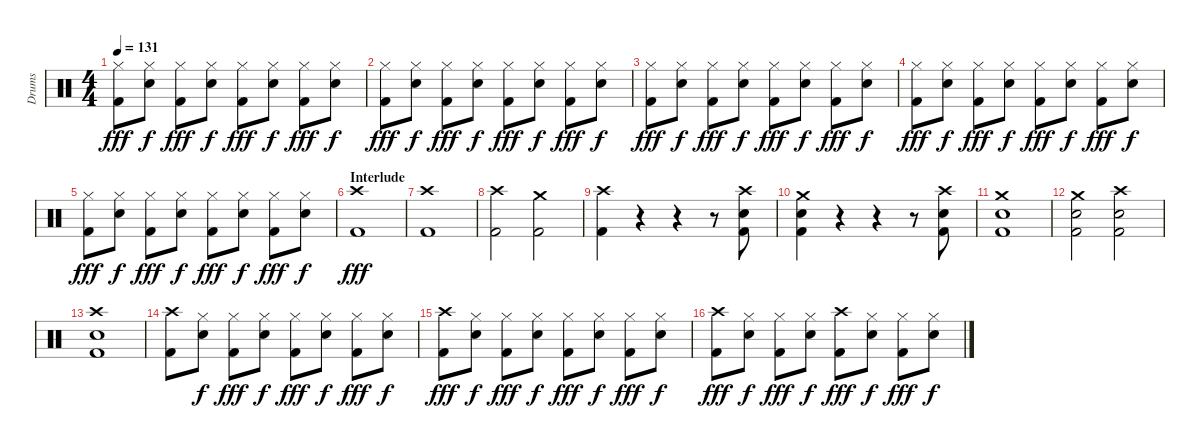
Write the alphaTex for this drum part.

\track ("Drums" "Drums") {instrument percussion}
\staff {score}
\articulation defaults
\ts (4 4)
\tempo 131
\clef neutral
\ks c
("Hi-Hat (closed)" "Kick (hit) 2").8{dy fff} ("Hi-Hat (closed)" "Electric Snare (hit)").8{dy f} ("Hi-Hat (closed)" "Kick (hit) 2").8{dy fff} ("Hi-Hat (closed)" "Electric Snare (hit)").8{dy f} ("Hi-Hat (closed)" "Kick (hit) 2").8{dy fff} ("Hi-Hat (closed)" "Electric Snare (hit)").8{dy f} ("Hi-Hat (closed)" "Kick (hit) 2").8{dy fff} ("Hi-Hat (closed)" "Electric Snare (hit)").8{dy f} |
("Hi-Hat (closed)" "Kick (hit) 2").8{dy fff} ("Hi-Hat (closed)" "Electric Snare (hit)").8{dy f} ("Hi-Hat (closed)" "Kick (hit) 2").8{dy fff} ("Hi-Hat (closed)" "Electric Snare (hit)").8{dy f} ("Hi-Hat (closed)" "Kick (hit) 2").8{dy fff} ("Hi-Hat (closed)" "Electric Snare (hit)").8{dy f} ("Hi-Hat (closed)" "Kick (hit) 2").8{dy fff} ("Hi-Hat (closed)" "Electric Snare (hit)").8{dy f} |
("Hi-Hat (closed)" "Kick (hit) 2").8{dy fff} ("Hi-Hat (closed)" "Electric Snare (hit)").8{dy f} ("Hi-Hat (closed)" "Kick (hit) 2").8{dy fff} ("Hi-Hat (closed)" "Electric Snare (hit)").8{dy f} ("Hi-Hat (closed)" "Kick (hit) 2").8{dy fff} ("Hi-Hat (closed)" "Electric Snare (hit)").8{dy f} ("Hi-Hat (closed)" "Kick (hit) 2").8{dy fff} ("Hi-Hat (closed)" "Electric Snare (hit)").8{dy f} |
("Hi-Hat (closed)" "Kick (hit) 2").8{dy fff} ("Hi-Hat (closed)" "Electric Snare (hit)").8{dy f} ("Hi-Hat (closed)" "Kick (hit) 2").8{dy fff} ("Hi-Hat (closed)" "Electric Snare (hit)").8{dy f} ("Hi-Hat (closed)" "Kick (hit) 2").8{dy fff} ("Hi-Hat (closed)" "Electric Snare (hit)").8{dy f} ("Hi-Hat (closed)" "Kick (hit) 2").8{dy fff} ("Hi-Hat (closed)" "Electric Snare (hit)").8{dy f} |
("Hi-Hat (closed)" "Kick (hit) 2").8{dy fff} ("Hi-Hat (closed)" "Electric Snare (hit)").8{dy f} ("Hi-Hat (closed)" "Kick (hit) 2").8{dy fff} ("Hi-Hat (closed)" "Electric Snare (hit)").8{dy f} ("Hi-Hat (closed)" "Kick (hit) 2").8{dy fff} ("Hi-Hat (closed)" "Electric Snare (hit)").8{dy f} ("Hi-Hat (closed)" "Kick (hit) 2").8{dy fff} ("Hi-Hat (closed)" "Electric Snare (hit)").8{dy f} |
\section ("" "Interlude")
("Crash high (hit)" "Kick (hit) 2").1{dy fff} |
("Crash high (hit)" "Kick (hit) 2").1 |
("Crash high (hit)" "Kick (hit) 2").2 ("Crash medium (hit)" "Kick (hit) 2").2 |
("Crash high (hit)" "Kick (hit) 2").4 r.4 r.4 r.8 ("Crash high (hit)" "Electric Snare (hit)" "Kick (hit) 2").8 |
("Crash medium (hit)" "Electric Snare (hit)" "Kick (hit) 2").4 r.4 r.4 r.8 ("Crash high (hit)" "Electric Snare (hit)" "Kick (hit) 2").8 |
("Crash medium (hit)" "Electric Snare (hit)" "Kick (hit) 2").1 |
("Crash medium (hit)" "Electric Snare (hit)" "Kick (hit) 2").2 ("Crash high (hit)" "Electric Snare (hit)" "Kick (hit) 2").2 |
("Crash high (hit)" "Electric Snare (hit)" "Kick (hit) 2").1 |
("Crash high (hit)" "Kick (hit) 2").8 ("Hi-Hat (closed)" "Electric Snare (hit)").8{dy f} ("Hi-Hat (closed)" "Kick (hit) 2").8{dy fff} ("Hi-Hat (closed)" "Electric Snare (hit)").8{dy f} ("Hi-Hat (closed)" "Kick (hit) 2").8{dy fff} ("Hi-Hat (closed)" "Electric Snare (hit)").8{dy f} ("Hi-Hat (closed)" "Kick (hit) 2").8{dy fff} ("Hi-Hat (closed)" "Electric Snare (hit)").8{dy f} |
("Crash high (hit)" "Kick (hit) 2").8{dy fff} ("Hi-Hat (closed)" "Electric Snare (hit)").8{dy f} ("Hi-Hat (closed)" "Kick (hit) 2").8{dy fff} ("Hi-Hat (closed)" "Electric Snare (hit)").8{dy f} ("Hi-Hat (closed)" "Kick (hit) 2").8{dy fff} ("Hi-Hat (closed)" "Electric Snare (hit)").8{dy f} ("Hi-Hat (closed)" "Kick (hit) 2").8{dy fff} ("Hi-Hat (closed)" "Electric Snare (hit)").8{dy f} |
("Crash high (hit)" "Kick (hit) 2").8{dy fff} ("Hi-Hat (closed)" "Electric Snare (hit)").8{dy f} ("Hi-Hat (closed)" "Kick (hit) 2").8{dy fff} ("Hi-Hat (closed)" "Electric Snare (hit)").8{dy f} ("Crash high (hit)" "Kick (hit) 2").8{dy fff} ("Hi-Hat (closed)" "Electric Snare (hit)").8{dy f} ("Hi-Hat (closed)" "Kick (hit) 2").8{dy fff} ("Hi-Hat (closed)" "Electric Snare (hit)").8{dy f}
